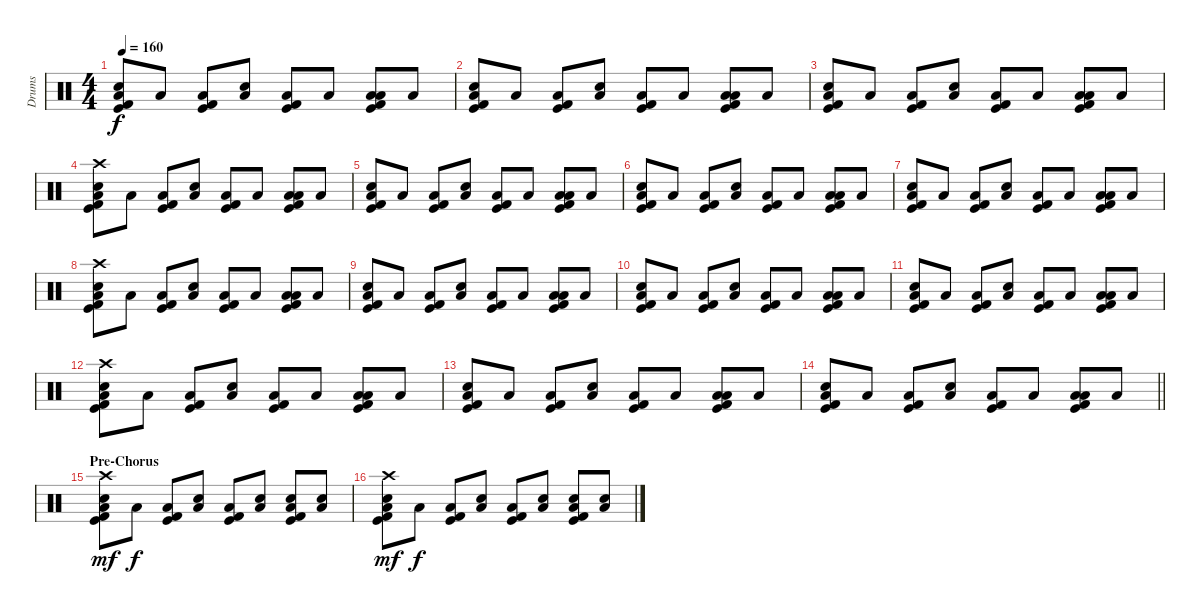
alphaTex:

\track ("Drums" "Drums") {instrument percussion}
\staff {score}
\articulation defaults
\ts (4 4)
\tempo 160
\clef neutral
\ks c
("Snare (hit) 2" "Low Floor Tom (hit)" "Kick (hit)" "Kick (hit) 2").8{dy f} "Low Floor Tom (hit)".8 ("Low Floor Tom (hit)" "Kick (hit)" "Kick (hit) 2").8 ("Snare (hit) 2" "Low Floor Tom (hit)").8 ("Low Floor Tom (hit)" "Kick (hit)" "Kick (hit) 2").8 "Low Floor Tom (hit)".8 ("Low Tom (hit)" "Low Floor Tom (hit)" "Kick (hit)" "Kick (hit) 2").8 "Low Floor Tom (hit)".8 |
("Snare (hit) 2" "Low Floor Tom (hit)" "Kick (hit)" "Kick (hit) 2").8 "Low Floor Tom (hit)".8 ("Low Floor Tom (hit)" "Kick (hit)" "Kick (hit) 2").8 ("Snare (hit) 2" "Low Floor Tom (hit)").8 ("Low Floor Tom (hit)" "Kick (hit)" "Kick (hit) 2").8 "Low Floor Tom (hit)".8 ("Low Tom (hit)" "Low Floor Tom (hit)" "Kick (hit)" "Kick (hit) 2").8 "Low Floor Tom (hit)".8 |
("Snare (hit) 2" "Low Floor Tom (hit)" "Kick (hit)" "Kick (hit) 2").8 "Low Floor Tom (hit)".8 ("Low Floor Tom (hit)" "Kick (hit)" "Kick (hit) 2").8 ("Snare (hit) 2" "Low Floor Tom (hit)").8 ("Low Floor Tom (hit)" "Kick (hit)" "Kick (hit) 2").8 "Low Floor Tom (hit)".8 ("Low Tom (hit)" "Low Floor Tom (hit)" "Kick (hit)" "Kick (hit) 2").8 "Low Floor Tom (hit)".8 |
("Crash high (hit)" "Snare (hit) 2" "Low Floor Tom (hit)" "Kick (hit)" "Kick (hit) 2").8 "Low Floor Tom (hit)".8 ("Low Floor Tom (hit)" "Kick (hit)" "Kick (hit) 2").8 ("Snare (hit) 2" "Low Floor Tom (hit)").8 ("Low Floor Tom (hit)" "Kick (hit)" "Kick (hit) 2").8 "Low Floor Tom (hit)".8 ("Low Tom (hit)" "Low Floor Tom (hit)" "Kick (hit)" "Kick (hit) 2").8 "Low Floor Tom (hit)".8 |
("Snare (hit) 2" "Low Floor Tom (hit)" "Kick (hit)" "Kick (hit) 2").8 "Low Floor Tom (hit)".8 ("Low Floor Tom (hit)" "Kick (hit)" "Kick (hit) 2").8 ("Snare (hit) 2" "Low Floor Tom (hit)").8 ("Low Floor Tom (hit)" "Kick (hit)" "Kick (hit) 2").8 "Low Floor Tom (hit)".8 ("Low Tom (hit)" "Low Floor Tom (hit)" "Kick (hit)" "Kick (hit) 2").8 "Low Floor Tom (hit)".8 |
("Snare (hit) 2" "Low Floor Tom (hit)" "Kick (hit)" "Kick (hit) 2").8 "Low Floor Tom (hit)".8 ("Low Floor Tom (hit)" "Kick (hit)" "Kick (hit) 2").8 ("Snare (hit) 2" "Low Floor Tom (hit)").8 ("Low Floor Tom (hit)" "Kick (hit)" "Kick (hit) 2").8 "Low Floor Tom (hit)".8 ("Low Tom (hit)" "Low Floor Tom (hit)" "Kick (hit)" "Kick (hit) 2").8 "Low Floor Tom (hit)".8 |
("Snare (hit) 2" "Low Floor Tom (hit)" "Kick (hit)" "Kick (hit) 2").8 "Low Floor Tom (hit)".8 ("Low Floor Tom (hit)" "Kick (hit)" "Kick (hit) 2").8 ("Snare (hit) 2" "Low Floor Tom (hit)").8 ("Low Floor Tom (hit)" "Kick (hit)" "Kick (hit) 2").8 "Low Floor Tom (hit)".8 ("Low Tom (hit)" "Low Floor Tom (hit)" "Kick (hit)" "Kick (hit) 2").8 "Low Floor Tom (hit)".8 |
("Crash high (hit)" "Snare (hit) 2" "Low Floor Tom (hit)" "Kick (hit)" "Kick (hit) 2").8 "Low Floor Tom (hit)".8 ("Low Floor Tom (hit)" "Kick (hit)" "Kick (hit) 2").8 ("Snare (hit) 2" "Low Floor Tom (hit)").8 ("Low Floor Tom (hit)" "Kick (hit)" "Kick (hit) 2").8 "Low Floor Tom (hit)".8 ("Low Tom (hit)" "Low Floor Tom (hit)" "Kick (hit)" "Kick (hit) 2").8 "Low Floor Tom (hit)".8 |
("Snare (hit) 2" "Low Floor Tom (hit)" "Kick (hit)" "Kick (hit) 2").8 "Low Floor Tom (hit)".8 ("Low Floor Tom (hit)" "Kick (hit)" "Kick (hit) 2").8 ("Snare (hit) 2" "Low Floor Tom (hit)").8 ("Low Floor Tom (hit)" "Kick (hit)" "Kick (hit) 2").8 "Low Floor Tom (hit)".8 ("Low Tom (hit)" "Low Floor Tom (hit)" "Kick (hit)" "Kick (hit) 2").8 "Low Floor Tom (hit)".8 |
("Snare (hit) 2" "Low Floor Tom (hit)" "Kick (hit)" "Kick (hit) 2").8 "Low Floor Tom (hit)".8 ("Low Floor Tom (hit)" "Kick (hit)" "Kick (hit) 2").8 ("Snare (hit) 2" "Low Floor Tom (hit)").8 ("Low Floor Tom (hit)" "Kick (hit)" "Kick (hit) 2").8 "Low Floor Tom (hit)".8 ("Low Tom (hit)" "Low Floor Tom (hit)" "Kick (hit)" "Kick (hit) 2").8 "Low Floor Tom (hit)".8 |
("Snare (hit) 2" "Low Floor Tom (hit)" "Kick (hit)" "Kick (hit) 2").8 "Low Floor Tom (hit)".8 ("Low Floor Tom (hit)" "Kick (hit)" "Kick (hit) 2").8 ("Snare (hit) 2" "Low Floor Tom (hit)").8 ("Low Floor Tom (hit)" "Kick (hit)" "Kick (hit) 2").8 "Low Floor Tom (hit)".8 ("Low Tom (hit)" "Low Floor Tom (hit)" "Kick (hit)" "Kick (hit) 2").8 "Low Floor Tom (hit)".8 |
("Crash high (hit)" "Snare (hit) 2" "Low Floor Tom (hit)" "Kick (hit)" "Kick (hit) 2").8 "Low Floor Tom (hit)".8 ("Low Floor Tom (hit)" "Kick (hit)" "Kick (hit) 2").8 ("Snare (hit) 2" "Low Floor Tom (hit)").8 ("Low Floor Tom (hit)" "Kick (hit)" "Kick (hit) 2").8 "Low Floor Tom (hit)".8 ("Low Tom (hit)" "Low Floor Tom (hit)" "Kick (hit)" "Kick (hit) 2").8 "Low Floor Tom (hit)".8 |
("Snare (hit) 2" "Low Floor Tom (hit)" "Kick (hit)" "Kick (hit) 2").8 "Low Floor Tom (hit)".8 ("Low Floor Tom (hit)" "Kick (hit)" "Kick (hit) 2").8 ("Snare (hit) 2" "Low Floor Tom (hit)").8 ("Low Floor Tom (hit)" "Kick (hit)" "Kick (hit) 2").8 "Low Floor Tom (hit)".8 ("Low Tom (hit)" "Low Floor Tom (hit)" "Kick (hit)" "Kick (hit) 2").8 "Low Floor Tom (hit)".8 |
\barLineRight lightlight
("Snare (hit) 2" "Low Floor Tom (hit)" "Kick (hit)" "Kick (hit) 2").8 "Low Floor Tom (hit)".8 ("Low Floor Tom (hit)" "Kick (hit)" "Kick (hit) 2").8 ("Snare (hit) 2" "Low Floor Tom (hit)").8 ("Low Floor Tom (hit)" "Kick (hit)" "Kick (hit) 2").8 "Low Floor Tom (hit)".8 ("Low Tom (hit)" "Low Floor Tom (hit)" "Kick (hit)" "Kick (hit) 2").8 "Low Floor Tom (hit)".8 |
\section ("" "Pre-Chorus")
("Crash high (hit)" "Snare (hit) 2" "Low Floor Tom (hit)" "Kick (hit)" "Kick (hit) 2").8{dy mf} "Low Floor Tom (hit)".8{dy f} ("Low Floor Tom (hit)" "Kick (hit)" "Kick (hit) 2").8 ("Snare (hit) 2" "Low Floor Tom (hit)").8 ("Low Floor Tom (hit)" "Kick (hit)" "Kick (hit) 2").8 ("Snare (hit) 2" "Low Floor Tom (hit)").8 ("Snare (hit) 2" "Low Floor Tom (hit)" "Kick (hit)" "Kick (hit) 2").8 ("Snare (hit) 2" "Low Floor Tom (hit)").8 |
("Crash high (hit)" "Snare (hit) 2" "Low Floor Tom (hit)" "Kick (hit)" "Kick (hit) 2").8{dy mf} "Low Floor Tom (hit)".8{dy f} ("Low Floor Tom (hit)" "Kick (hit)" "Kick (hit) 2").8 ("Snare (hit) 2" "Low Floor Tom (hit)").8 ("Low Floor Tom (hit)" "Kick (hit)" "Kick (hit) 2").8 ("Snare (hit) 2" "Low Floor Tom (hit)").8 ("Snare (hit) 2" "Low Floor Tom (hit)" "Kick (hit)" "Kick (hit) 2").8 ("Snare (hit) 2" "Low Floor Tom (hit)").8
